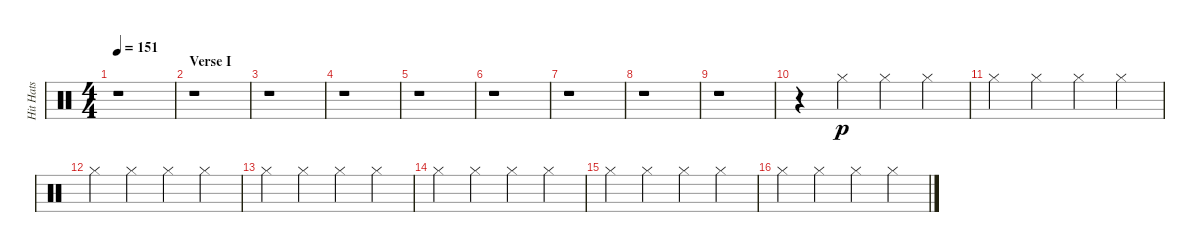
\track ("Hit Hats" "Hit Hats") {instrument percussion}
\staff {score}
\articulation defaults
\ts (4 4)
\tempo 151
\clef neutral
\ks c
r.1{dy p} |
\section ("" "Verse I")
r.1 |
r.1 |
r.1 |
r.1 |
r.1 |
r.1 |
r.1 |
r.1 |
r.4 "Hi-Hat (closed)".4 "Hi-Hat (closed)".4 "Hi-Hat (closed)".4 |
"Hi-Hat (closed)".4 "Hi-Hat (closed)".4 "Hi-Hat (closed)".4 "Hi-Hat (closed)".4 |
"Hi-Hat (closed)".4 "Hi-Hat (closed)".4 "Hi-Hat (closed)".4 "Hi-Hat (closed)".4 |
"Hi-Hat (closed)".4 "Hi-Hat (closed)".4 "Hi-Hat (closed)".4 "Hi-Hat (closed)".4 |
"Hi-Hat (closed)".4 "Hi-Hat (closed)".4 "Hi-Hat (closed)".4 "Hi-Hat (closed)".4 |
"Hi-Hat (closed)".4 "Hi-Hat (closed)".4 "Hi-Hat (closed)".4 "Hi-Hat (closed)".4 |
"Hi-Hat (closed)".4 "Hi-Hat (closed)".4 "Hi-Hat (closed)".4 "Hi-Hat (closed)".4
